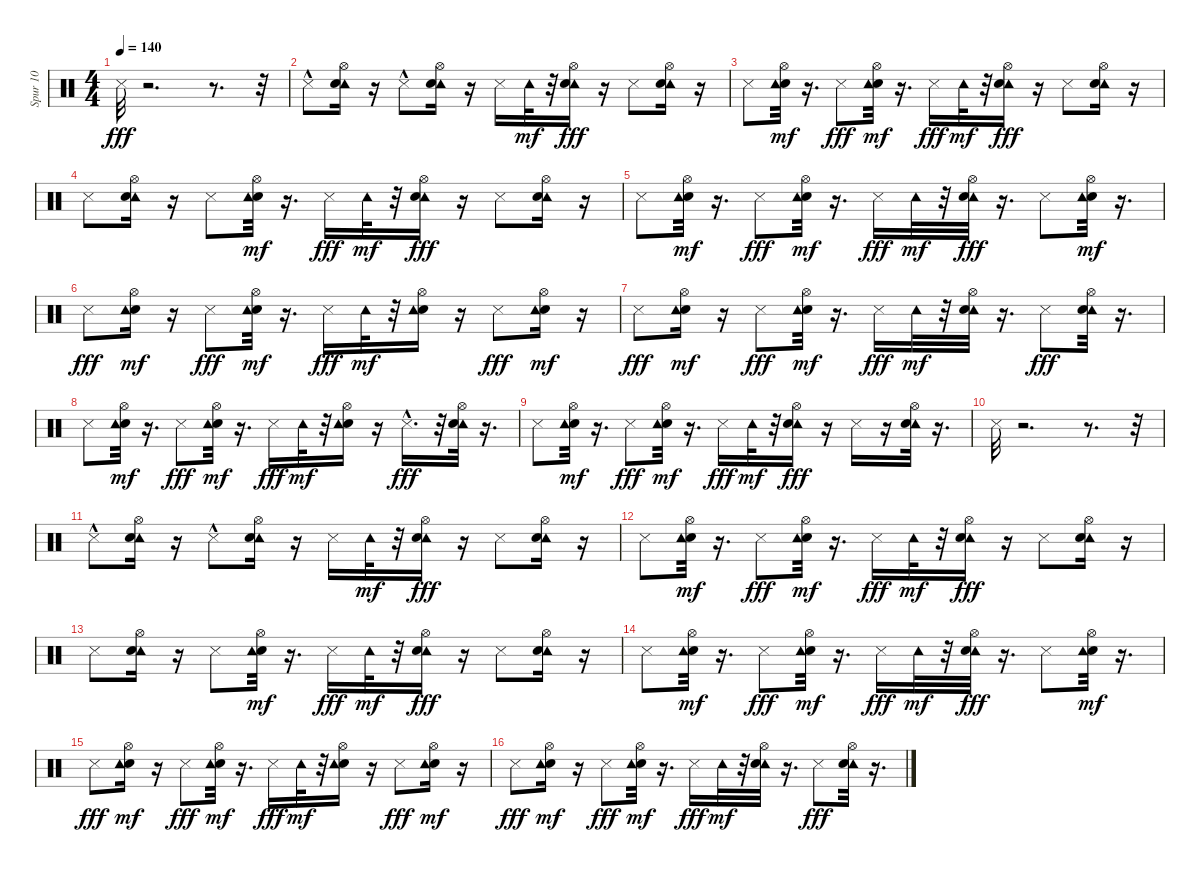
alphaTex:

\track ("Spur 10" "Spur 10") {instrument percussion}
\staff {score}
\articulation defaults
\ts (4 4)
\tempo 140
\clef neutral
\ks c "Metronome (hit)".32{dy fff}
r.2{d} r.8{d} r.32 |
"Metronome (hit)"{hac}.8 ("Tambourine (hit)" "Hi-Hat (open)" "Snare (hit)").16 r.16 "Metronome (hit)"{hac}.8 ("Tambourine (hit)" "Hi-Hat (open)" "Snare (hit)").16 r.16 "Metronome (hit)".16 "Tambourine (hit)".32{dy mf} r.32 ("Tambourine (hit)" "Hi-Hat (open)" "Snare (hit)").16{dy fff} r.16 "Metronome (hit)".8 ("Tambourine (hit)" "Hi-Hat (open)" "Snare (hit)").16 r.16 |
"Metronome (hit)".8 ("Hi-Hat (open)" "Snare (hit)" "Tambourine (hit)").32{dy mf} r.16{d} "Metronome (hit)".8{dy fff} ("Hi-Hat (open)" "Snare (hit)" "Tambourine (hit)").32{dy mf} r.16{d} "Metronome (hit)".16{dy fff} "Tambourine (hit)".32{dy mf} r.32 ("Tambourine (hit)" "Hi-Hat (open)" "Snare (hit)").16{dy fff} r.16 "Metronome (hit)".8 ("Tambourine (hit)" "Hi-Hat (open)" "Snare (hit)").16 r.16 |
"Metronome (hit)".8 ("Tambourine (hit)" "Hi-Hat (open)" "Snare (hit)").16 r.16 "Metronome (hit)".8 ("Hi-Hat (open)" "Snare (hit)" "Tambourine (hit)").32{dy mf} r.16{d} "Metronome (hit)".16{dy fff} "Tambourine (hit)".32{dy mf} r.32 ("Tambourine (hit)" "Hi-Hat (open)" "Snare (hit)").16{dy fff} r.16 "Metronome (hit)".8 ("Tambourine (hit)" "Hi-Hat (open)" "Snare (hit)").16 r.16 |
"Metronome (hit)".8 ("Snare (hit)" "Hi-Hat (open)" "Tambourine (hit)").32{dy mf} r.16{d} "Metronome (hit)".8{dy fff} ("Hi-Hat (open)" "Snare (hit)" "Tambourine (hit)").32{dy mf} r.16{d} "Metronome (hit)".16{dy fff} "Tambourine (hit)".32{dy mf} r.32 ("Tambourine (hit)" "Hi-Hat (open)" "Snare (hit)").32{dy fff} r.16{d} "Metronome (hit)".8 ("Hi-Hat (open)" "Snare (hit)" "Tambourine (hit)").32{dy mf} r.16{d} |
"Metronome (hit)".8{dy fff} ("Hi-Hat (open)" "Snare (hit)" "Tambourine (hit)").16{dy mf} r.16 "Metronome (hit)".8{dy fff} ("Hi-Hat (open)" "Snare (hit)" "Tambourine (hit)").32{dy mf} r.16{d} "Metronome (hit)".16{dy fff} "Tambourine (hit)".32{dy mf} r.32 ("Hi-Hat (open)" "Snare (hit)" "Tambourine (hit)").16 r.16 "Metronome (hit)".8{dy fff} ("Snare (hit)" "Hi-Hat (open)" "Tambourine (hit)").16{dy mf} r.16 |
"Metronome (hit)".8{dy fff} ("Hi-Hat (open)" "Snare (hit)" "Tambourine (hit)").16{dy mf} r.16 "Metronome (hit)".8{dy fff} ("Hi-Hat (open)" "Snare (hit)" "Tambourine (hit)").32{dy mf} r.16{d} "Metronome (hit)".16{dy fff} "Tambourine (hit)".32{dy mf} r.32 ("Tambourine (hit)" "Snare (hit)" "Hi-Hat (open)").32 r.16{d} "Metronome (hit)".8{dy fff} ("Tambourine (hit)" "Hi-Hat (open)" "Snare (hit)").32 r.16{d} |
"Metronome (hit)".8 ("Hi-Hat (open)" "Snare (hit)" "Tambourine (hit)").32{dy mf} r.16{d} "Metronome (hit)".8{dy fff} ("Hi-Hat (open)" "Snare (hit)" "Tambourine (hit)").32{dy mf} r.16{d} "Metronome (hit)".16{dy fff} "Tambourine (hit)".32{dy mf} r.32 ("Hi-Hat (open)" "Snare (hit)" "Tambourine (hit)").16 r.16 "Metronome (hit)"{hac}.16{d dy fff} r.32 ("Tambourine (hit)" "Hi-Hat (open)" "Snare (hit)").32 r.16{d} |
"Metronome (hit)".8 ("Hi-Hat (open)" "Snare (hit)" "Tambourine (hit)").32{dy mf} r.16{d} "Metronome (hit)".8{dy fff} ("Hi-Hat (open)" "Snare (hit)" "Tambourine (hit)").32{dy mf} r.16{d} "Metronome (hit)".16{dy fff} "Tambourine (hit)".32{dy mf} r.32 ("Tambourine (hit)" "Hi-Hat (open)" "Snare (hit)").16{dy fff} r.16 "Metronome (hit)".16 r.16 ("Tambourine (hit)" "Hi-Hat (open)" "Snare (hit)").32 r.16{d} |
"Metronome (hit)".32 r.2{d} r.8{d} r.32 |
"Metronome (hit)"{hac}.8 ("Tambourine (hit)" "Hi-Hat (open)" "Snare (hit)").16 r.16 "Metronome (hit)"{hac}.8 ("Tambourine (hit)" "Hi-Hat (open)" "Snare (hit)").16 r.16 "Metronome (hit)".16 "Tambourine (hit)".32{dy mf} r.32 ("Tambourine (hit)" "Hi-Hat (open)" "Snare (hit)").16{dy fff} r.16 "Metronome (hit)".8 ("Tambourine (hit)" "Hi-Hat (open)" "Snare (hit)").16 r.16 |
"Metronome (hit)".8 ("Hi-Hat (open)" "Snare (hit)" "Tambourine (hit)").32{dy mf} r.16{d} "Metronome (hit)".8{dy fff} ("Hi-Hat (open)" "Snare (hit)" "Tambourine (hit)").32{dy mf} r.16{d} "Metronome (hit)".16{dy fff} "Tambourine (hit)".32{dy mf} r.32 ("Tambourine (hit)" "Hi-Hat (open)" "Snare (hit)").16{dy fff} r.16 "Metronome (hit)".8 ("Tambourine (hit)" "Hi-Hat (open)" "Snare (hit)").16 r.16 |
"Metronome (hit)".8 ("Tambourine (hit)" "Hi-Hat (open)" "Snare (hit)").16 r.16 "Metronome (hit)".8 ("Hi-Hat (open)" "Snare (hit)" "Tambourine (hit)").32{dy mf} r.16{d} "Metronome (hit)".16{dy fff} "Tambourine (hit)".32{dy mf} r.32 ("Tambourine (hit)" "Hi-Hat (open)" "Snare (hit)").16{dy fff} r.16 "Metronome (hit)".8 ("Tambourine (hit)" "Hi-Hat (open)" "Snare (hit)").16 r.16 |
"Metronome (hit)".8 ("Snare (hit)" "Hi-Hat (open)" "Tambourine (hit)").32{dy mf} r.16{d} "Metronome (hit)".8{dy fff} ("Hi-Hat (open)" "Snare (hit)" "Tambourine (hit)").32{dy mf} r.16{d} "Metronome (hit)".16{dy fff} "Tambourine (hit)".32{dy mf} r.32 ("Tambourine (hit)" "Hi-Hat (open)" "Snare (hit)").32{dy fff} r.16{d} "Metronome (hit)".8 ("Hi-Hat (open)" "Snare (hit)" "Tambourine (hit)").32{dy mf} r.16{d} |
"Metronome (hit)".8{dy fff} ("Hi-Hat (open)" "Snare (hit)" "Tambourine (hit)").16{dy mf} r.16 "Metronome (hit)".8{dy fff} ("Hi-Hat (open)" "Snare (hit)" "Tambourine (hit)").32{dy mf} r.16{d} "Metronome (hit)".16{dy fff} "Tambourine (hit)".32{dy mf} r.32 ("Hi-Hat (open)" "Snare (hit)" "Tambourine (hit)").16 r.16 "Metronome (hit)".8{dy fff} ("Snare (hit)" "Hi-Hat (open)" "Tambourine (hit)").16{dy mf} r.16 |
"Metronome (hit)".8{dy fff} ("Hi-Hat (open)" "Snare (hit)" "Tambourine (hit)").16{dy mf} r.16 "Metronome (hit)".8{dy fff} ("Hi-Hat (open)" "Snare (hit)" "Tambourine (hit)").32{dy mf} r.16{d} "Metronome (hit)".16{dy fff} "Tambourine (hit)".32{dy mf} r.32 ("Tambourine (hit)" "Snare (hit)" "Hi-Hat (open)").32 r.16{d} "Metronome (hit)".8{dy fff} ("Tambourine (hit)" "Hi-Hat (open)" "Snare (hit)").32 r.16{d}
